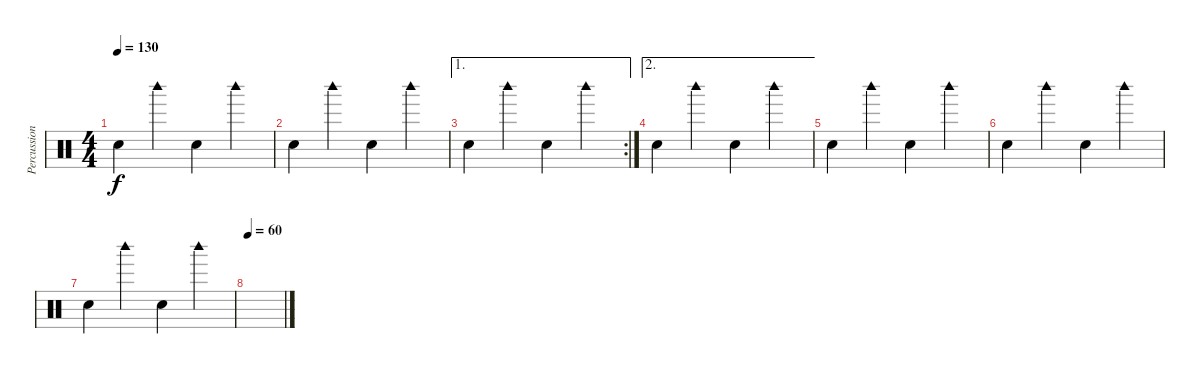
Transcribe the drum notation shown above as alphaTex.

\track ("Percussions" "Percussion") {instrument percussion}
\staff {score}
\articulation defaults
\ts (4 4)
\tempo 130
\clef neutral
\ks c "Hand Clap (hit)".4{dy f} "Woodblock high (hit)".4 "Hand Clap (hit)".4 "Woodblock high (hit)".4
|
"Hand Clap (hit)".4 "Woodblock high (hit)".4 "Hand Clap (hit)".4 "Woodblock high (hit)".4 |
\ae 1
\rc 2 "Hand Clap (hit)".4 "Woodblock high (hit)".4 "Hand Clap (hit)".4 "Woodblock high (hit)".4
|
\ae 2 "Hand Clap (hit)".4 "Woodblock high (hit)".4 "Hand Clap (hit)".4 "Woodblock high (hit)".4
|
"Hand Clap (hit)".4 "Woodblock high (hit)".4 "Hand Clap (hit)".4 "Woodblock high (hit)".4 |
"Hand Clap (hit)".4 "Woodblock high (hit)".4 "Hand Clap (hit)".4 "Woodblock high (hit)".4 |
"Hand Clap (hit)".4 "Woodblock high (hit)".4 "Hand Clap (hit)".4 "Woodblock high (hit)".4 |
\tempo 60
